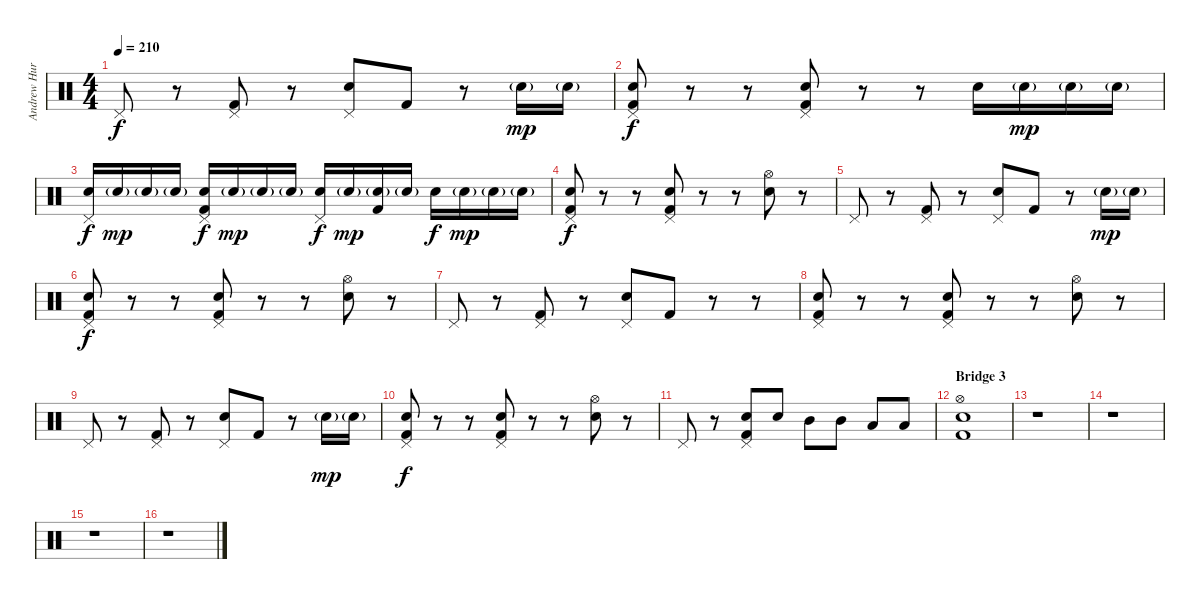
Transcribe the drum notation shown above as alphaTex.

\track ("Andrew Hurley (Drums)" "Andrew Hur") {instrument percussion}
\staff {score}
\articulation defaults
\ts (4 4)
\tempo 210
\clef neutral
\ks c "Pedal Hi-Hat (hit)".8{dy f}
r.8 ("Pedal Hi-Hat (hit)" "Kick (hit) 2").8 r.8 ("Pedal Hi-Hat (hit)" "Electric Snare (hit)").8 "Kick (hit) 2".8 r.8 "Electric Snare (hit)"{g}.16{dy mp} "Electric Snare (hit)"{g}.16 |
("Pedal Hi-Hat (hit)" "Electric Snare (hit)" "Kick (hit) 2").8{dy f} r.8 r.8 ("Pedal Hi-Hat (hit)" "Electric Snare (hit)" "Kick (hit) 2").8 r.8 r.8 "Electric Snare (hit)".16 "Electric Snare (hit)"{g}.16{dy mp} "Electric Snare (hit)"{g}.16 "Electric Snare (hit)"{g}.16 |
("Pedal Hi-Hat (hit)" "Electric Snare (hit)").16{dy f} "Electric Snare (hit)"{g}.16{dy mp} "Electric Snare (hit)"{g}.16 "Electric Snare (hit)"{g}.16 ("Pedal Hi-Hat (hit)" "Electric Snare (hit)" "Kick (hit) 2").16{dy f} "Electric Snare (hit)"{g}.16{dy mp} "Electric Snare (hit)"{g}.16 "Electric Snare (hit)"{g}.16 ("Pedal Hi-Hat (hit)" "Electric Snare (hit)").16{dy f} "Electric Snare (hit)"{g}.16{dy mp} ("Electric Snare (hit)"{g} "Kick (hit) 2").16 "Electric Snare (hit)"{g}.16 "Electric Snare (hit)".16{dy f} "Electric Snare (hit)"{g}.16{dy mp} "Electric Snare (hit)"{g}.16 "Electric Snare (hit)"{g}.16 |
("Pedal Hi-Hat (hit)" "Electric Snare (hit)" "Kick (hit) 2").8{dy f} r.8 r.8 ("Pedal Hi-Hat (hit)" "Electric Snare (hit)" "Kick (hit) 2").8 r.8 r.8 ("Hi-Hat (open)" "Electric Snare (hit)").8 r.8 |
"Pedal Hi-Hat (hit)".8 r.8 ("Pedal Hi-Hat (hit)" "Kick (hit) 2").8 r.8 ("Pedal Hi-Hat (hit)" "Electric Snare (hit)").8 "Kick (hit) 2".8 r.8 "Electric Snare (hit)"{g}.16{dy mp} "Electric Snare (hit)"{g}.16 |
("Pedal Hi-Hat (hit)" "Electric Snare (hit)" "Kick (hit) 2").8{dy f} r.8 r.8 ("Pedal Hi-Hat (hit)" "Electric Snare (hit)" "Kick (hit) 2").8 r.8 r.8 ("Hi-Hat (open)" "Electric Snare (hit)").8 r.8 |
"Pedal Hi-Hat (hit)".8 r.8 ("Pedal Hi-Hat (hit)" "Kick (hit) 2").8 r.8 ("Pedal Hi-Hat (hit)" "Electric Snare (hit)").8 "Kick (hit) 2".8 r.8 r.8 |
("Pedal Hi-Hat (hit)" "Electric Snare (hit)" "Kick (hit) 2").8 r.8 r.8 ("Pedal Hi-Hat (hit)" "Electric Snare (hit)" "Kick (hit) 2").8 r.8 r.8 ("Hi-Hat (open)" "Electric Snare (hit)").8 r.8 |
"Pedal Hi-Hat (hit)".8 r.8 ("Pedal Hi-Hat (hit)" "Kick (hit) 2").8 r.8 ("Pedal Hi-Hat (hit)" "Electric Snare (hit)").8 "Kick (hit) 2".8 r.8 "Electric Snare (hit)"{g}.16{dy mp} "Electric Snare (hit)"{g}.16 |
("Pedal Hi-Hat (hit)" "Electric Snare (hit)" "Kick (hit) 2").8{dy f} r.8 r.8 ("Pedal Hi-Hat (hit)" "Electric Snare (hit)" "Kick (hit) 2").8 r.8 r.8 ("Hi-Hat (open)" "Electric Snare (hit)").8 r.8 |
"Pedal Hi-Hat (hit)".8 r.8 ("Pedal Hi-Hat (hit)" "Electric Snare (hit)" "Kick (hit) 2").8 "Electric Snare (hit)".8 "Mid Tom (hit)".8 "Mid Tom (hit)".8 "Low Tom (hit)".8 "Low Tom (hit)".8 |
\section ("" "Bridge 3")
("Hi-Hat (open)" "Electric Snare (hit)" "Kick (hit) 2").1 |
r.1 |
r.1 |
r.1 |
r.1
